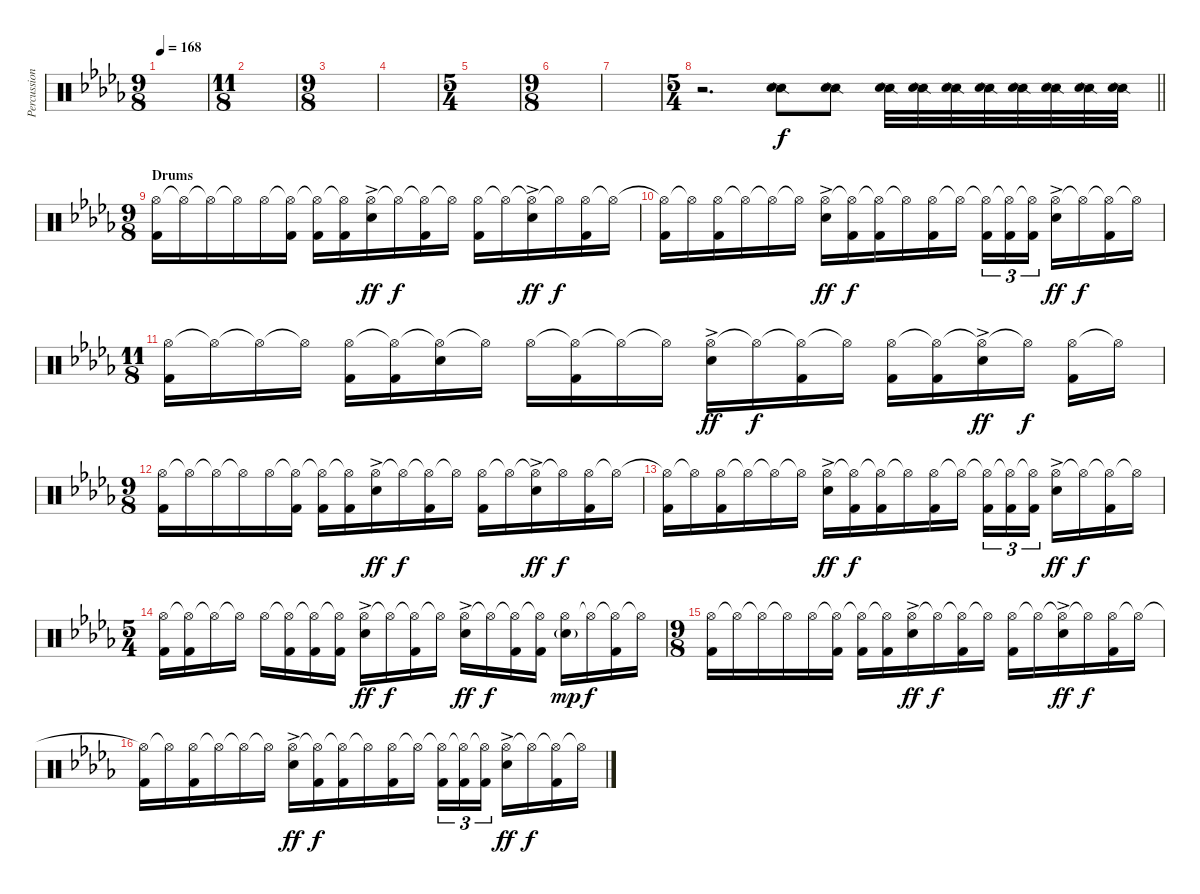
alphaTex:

\track ("Percussion" "Percussion") {instrument percussion}
\staff {score}
\articulation defaults
\ts (9 8)
\tempo 168
\clef neutral
\ks bbminor
|
\ts (11 8)
|
\ts (9 8)
|
|
\ts (5 4)
|
\ts (9 8)
|
|
\ts (5 4)
\barLineRight lightlight
r.2{d} ("Snare (side stick) 2" "Electric Snare (hit)").8 ("Snare (side stick) 2" "Electric Snare (hit)").8{balance 7} ("Snare (side stick) 2" "Electric Snare (hit)").32{balance 16} ("Snare (side stick) 2" "Electric Snare (hit)").32{balance 0} ("Snare (side stick) 2" "Electric Snare (hit)").32{balance 16} ("Snare (side stick) 2" "Electric Snare (hit)").32{balance 0} ("Snare (side stick) 2" "Electric Snare (hit)").32{balance 16} ("Snare (side stick) 2" "Electric Snare (hit)").32{balance 0} ("Snare (side stick) 2" "Electric Snare (hit)").32{balance 16} ("Snare (side stick) 2" "Electric Snare (hit)").32{balance 0} |
\ts (9 8)
\section ("" "Drums")
("Hi-Hat (open)" "Kick (hit) 2").16{balance 9} "Hi-Hat (open)"{t}.16 "Hi-Hat (open)"{t}.16 "Hi-Hat (open)"{t}.16 "Hi-Hat (open)".16 ("Hi-Hat (open)"{t} "Kick (hit) 2").16 ("Hi-Hat (open)"{t} "Kick (hit) 2").16 ("Hi-Hat (open)"{t} "Kick (hit) 2").16 ("Hi-Hat (open)" "Snare (hit) 2"{ac}).16{dy ff} "Hi-Hat (open)"{t}.16{dy f} ("Hi-Hat (open)"{t} "Kick (hit) 2").16 "Hi-Hat (open)"{t}.16 ("Hi-Hat (open)" "Kick (hit) 2").16 "Hi-Hat (open)"{t}.16 ("Hi-Hat (open)"{t} "Snare (hit) 2"{ac}).16{dy ff} "Hi-Hat (open)"{t}.16{dy f} ("Hi-Hat (open)" "Kick (hit) 2").16 "Hi-Hat (open)"{t}.16 |
("Hi-Hat (open)"{t} "Kick (hit) 2").16 "Hi-Hat (open)"{t}.16 ("Hi-Hat (open)" "Kick (hit) 2").16 "Hi-Hat (open)"{t}.16 "Hi-Hat (open)"{t}.16 "Hi-Hat (open)"{t}.16 ("Hi-Hat (open)" "Snare (hit) 2"{ac}).16{dy ff} ("Hi-Hat (open)"{t} "Kick (hit) 2").16{dy f} ("Hi-Hat (open)"{t} "Kick (hit) 2").16 "Hi-Hat (open)"{t}.16 ("Hi-Hat (open)" "Kick (hit) 2").16 "Hi-Hat (open)"{t}.16 ("Hi-Hat (open)"{t} "Kick (hit) 2").16{tu (3 2)} ("Hi-Hat (open)"{t} "Kick (hit) 2").16{tu (3 2)} ("Hi-Hat (open)"{t} "Kick (hit) 2").16{tu (3 2) beam splitsecondary} ("Hi-Hat (open)" "Snare (hit) 2"{ac}).16{dy ff} "Hi-Hat (open)"{t}.16{dy f} ("Hi-Hat (open)"{t} "Kick (hit) 2").16 "Hi-Hat (open)"{t}.16 |
\ts (11 8)
("Hi-Hat (open)" "Kick (hit) 2").16 "Hi-Hat (open)"{t}.16 "Hi-Hat (open)"{t}.16 "Hi-Hat (open)"{t}.16 ("Hi-Hat (open)" "Kick (hit) 2").16 ("Hi-Hat (open)"{t} "Kick (hit) 2").16 ("Hi-Hat (open)"{t} "Snare (hit) 2").16 "Hi-Hat (open)"{t}.16 "Hi-Hat (open)".16 ("Hi-Hat (open)"{t} "Kick (hit) 2").16 "Hi-Hat (open)"{t}.16 "Hi-Hat (open)"{t}.16 ("Hi-Hat (open)" "Snare (hit) 2"{ac}).16{dy ff} "Hi-Hat (open)"{t}.16{dy f} ("Hi-Hat (open)"{t} "Kick (hit) 2").16 "Hi-Hat (open)"{t}.16 ("Hi-Hat (open)" "Kick (hit) 2").16 ("Hi-Hat (open)"{t} "Kick (hit) 2").16 ("Hi-Hat (open)"{t} "Snare (hit) 2"{ac}).16{dy ff} "Hi-Hat (open)"{t}.16{dy f} ("Hi-Hat (open)" "Kick (hit) 2").16 "Hi-Hat (open)"{t}.16 |
\ts (9 8)
("Hi-Hat (open)" "Kick (hit) 2").16 "Hi-Hat (open)"{t}.16 "Hi-Hat (open)"{t}.16 "Hi-Hat (open)"{t}.16 "Hi-Hat (open)".16 ("Hi-Hat (open)"{t} "Kick (hit) 2").16 ("Hi-Hat (open)"{t} "Kick (hit) 2").16 ("Hi-Hat (open)"{t} "Kick (hit) 2").16 ("Hi-Hat (open)" "Snare (hit) 2"{ac}).16{dy ff} "Hi-Hat (open)"{t}.16{dy f} ("Hi-Hat (open)"{t} "Kick (hit) 2").16 "Hi-Hat (open)"{t}.16 ("Hi-Hat (open)" "Kick (hit) 2").16 "Hi-Hat (open)"{t}.16 ("Hi-Hat (open)"{t} "Snare (hit) 2"{ac}).16{dy ff} "Hi-Hat (open)"{t}.16{dy f} ("Hi-Hat (open)" "Kick (hit) 2").16 "Hi-Hat (open)"{t}.16 |
("Hi-Hat (open)"{t} "Kick (hit) 2").16 "Hi-Hat (open)"{t}.16 ("Hi-Hat (open)" "Kick (hit) 2").16 "Hi-Hat (open)"{t}.16 "Hi-Hat (open)"{t}.16 "Hi-Hat (open)"{t}.16 ("Hi-Hat (open)" "Snare (hit) 2"{ac}).16{dy ff} ("Hi-Hat (open)"{t} "Kick (hit) 2").16{dy f} ("Hi-Hat (open)"{t} "Kick (hit) 2").16 "Hi-Hat (open)"{t}.16 ("Hi-Hat (open)" "Kick (hit) 2").16 "Hi-Hat (open)"{t}.16 ("Hi-Hat (open)"{t} "Kick (hit) 2").16{tu (3 2)} ("Hi-Hat (open)"{t} "Kick (hit) 2").16{tu (3 2)} ("Hi-Hat (open)"{t} "Kick (hit) 2").16{tu (3 2) beam splitsecondary} ("Hi-Hat (open)" "Snare (hit) 2"{ac}).16{dy ff} "Hi-Hat (open)"{t}.16{dy f} ("Hi-Hat (open)"{t} "Kick (hit) 2").16 "Hi-Hat (open)"{t}.16 |
\ts (5 4)
("Hi-Hat (open)" "Kick (hit) 2").16 ("Hi-Hat (open)"{t} "Kick (hit) 2").16 "Hi-Hat (open)"{t}.16 "Hi-Hat (open)"{t}.16 "Hi-Hat (open)".16 ("Hi-Hat (open)"{t} "Kick (hit) 2").16 ("Hi-Hat (open)"{t} "Kick (hit) 2").16 ("Hi-Hat (open)"{t} "Kick (hit) 2").16 ("Hi-Hat (open)" "Snare (hit) 2"{ac}).16{dy ff} "Hi-Hat (open)"{t}.16{dy f} ("Hi-Hat (open)"{t} "Kick (hit) 2").16 "Hi-Hat (open)"{t}.16 ("Hi-Hat (open)" "Snare (hit) 2"{ac}).16{dy ff} "Hi-Hat (open)"{t}.16{dy f} ("Hi-Hat (open)"{t} "Kick (hit) 2").16 ("Hi-Hat (open)"{t} "Kick (hit) 2").16 ("Hi-Hat (open)" "Snare (hit) 2"{g}).16{dy mp} "Hi-Hat (open)"{t}.16{dy f} ("Hi-Hat (open)"{t} "Kick (hit) 2").16 "Hi-Hat (open)"{t}.16 |
\ts (9 8)
("Hi-Hat (open)" "Kick (hit) 2").16 "Hi-Hat (open)"{t}.16 "Hi-Hat (open)"{t}.16 "Hi-Hat (open)"{t}.16 "Hi-Hat (open)".16 ("Hi-Hat (open)"{t} "Kick (hit) 2").16 ("Hi-Hat (open)"{t} "Kick (hit) 2").16 ("Hi-Hat (open)"{t} "Kick (hit) 2").16 ("Hi-Hat (open)" "Snare (hit) 2"{ac}).16{dy ff} "Hi-Hat (open)"{t}.16{dy f} ("Hi-Hat (open)"{t} "Kick (hit) 2").16 "Hi-Hat (open)"{t}.16 ("Hi-Hat (open)" "Kick (hit) 2").16 "Hi-Hat (open)"{t}.16 ("Hi-Hat (open)"{t} "Snare (hit) 2"{ac}).16{dy ff} "Hi-Hat (open)"{t}.16{dy f} ("Hi-Hat (open)" "Kick (hit) 2").16 "Hi-Hat (open)"{t}.16 |
("Hi-Hat (open)"{t} "Kick (hit) 2").16 "Hi-Hat (open)"{t}.16 ("Hi-Hat (open)" "Kick (hit) 2").16 "Hi-Hat (open)"{t}.16 "Hi-Hat (open)"{t}.16 "Hi-Hat (open)"{t}.16 ("Hi-Hat (open)" "Snare (hit) 2"{ac}).16{dy ff} ("Hi-Hat (open)"{t} "Kick (hit) 2").16{dy f} ("Hi-Hat (open)"{t} "Kick (hit) 2").16 "Hi-Hat (open)"{t}.16 ("Hi-Hat (open)" "Kick (hit) 2").16 "Hi-Hat (open)"{t}.16 ("Hi-Hat (open)"{t} "Kick (hit) 2").16{tu (3 2)} ("Hi-Hat (open)"{t} "Kick (hit) 2").16{tu (3 2)} ("Hi-Hat (open)"{t} "Kick (hit) 2").16{tu (3 2) beam splitsecondary} ("Hi-Hat (open)" "Snare (hit) 2"{ac}).16{dy ff} "Hi-Hat (open)"{t}.16{dy f} ("Hi-Hat (open)"{t} "Kick (hit) 2").16 "Hi-Hat (open)"{t}.16
